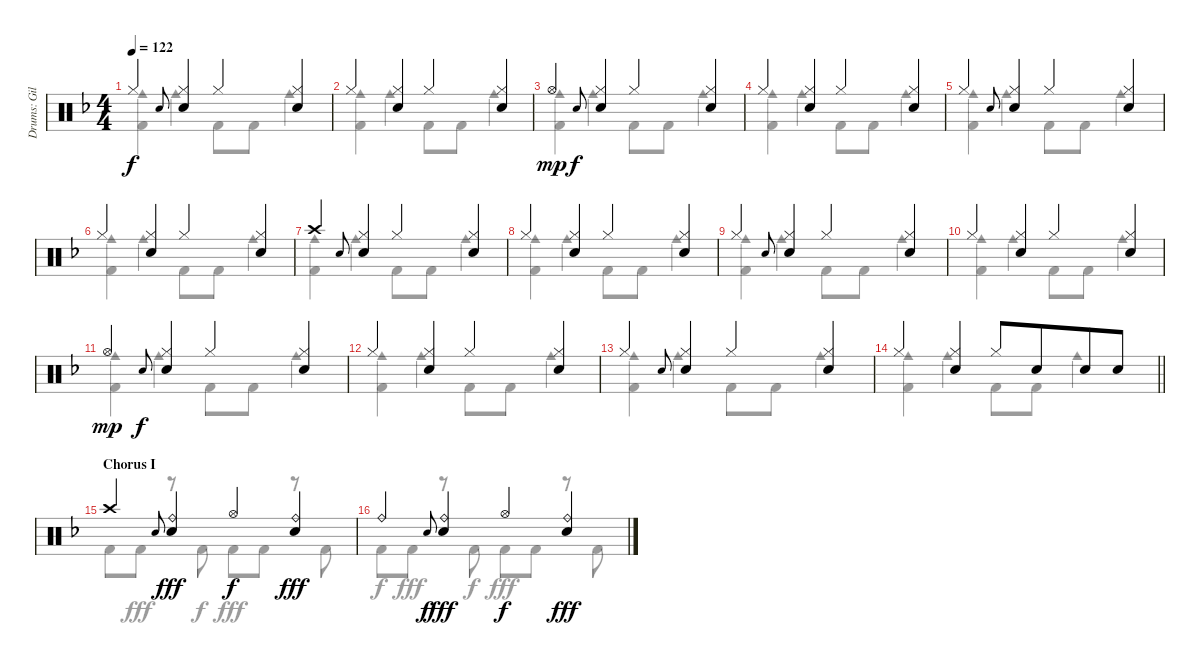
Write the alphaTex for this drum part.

\track ("Drums: Gil" "Drums: Gil") {instrument percussion}
\staff {score}
\articulation defaults
\voice
\ts (4 4)
\tempo 122
\clef neutral
\ks f "Hi-Hat (closed)".4{dy f} "Electric Snare (hit)".8{gr onbeat}
("Hi-Hat (closed)" "Snare (hit) 2").4 "Hi-Hat (closed)".4 ("Hi-Hat (closed)" "Snare (hit) 2").4 |
"Hi-Hat (closed)".4 ("Hi-Hat (closed)" "Snare (hit) 2").4 "Hi-Hat (closed)".4 ("Hi-Hat (closed)" "Snare (hit) 2").4 |
"Hi-Hat (open)".4{dy mp} "Electric Snare (hit)".8{gr onbeat dy f} ("Hi-Hat (closed)" "Snare (hit) 2").4 "Hi-Hat (closed)".4 ("Hi-Hat (closed)" "Snare (hit) 2").4 |
"Hi-Hat (closed)".4 ("Hi-Hat (closed)" "Snare (hit) 2").4 "Hi-Hat (closed)".4 ("Hi-Hat (closed)" "Snare (hit) 2").4 |
"Hi-Hat (closed)".4 "Electric Snare (hit)".8{gr onbeat} ("Hi-Hat (closed)" "Snare (hit) 2").4 "Hi-Hat (closed)".4 ("Hi-Hat (closed)" "Snare (hit) 2").4 |
"Hi-Hat (closed)".4 ("Hi-Hat (closed)" "Snare (hit) 2").4 "Hi-Hat (closed)".4 ("Hi-Hat (closed)" "Snare (hit) 2").4 |
"Crash high (hit)".4 "Electric Snare (hit)".8{gr onbeat} ("Hi-Hat (closed)" "Snare (hit) 2").4 "Hi-Hat (closed)".4 ("Hi-Hat (closed)" "Snare (hit) 2").4 |
"Hi-Hat (closed)".4 ("Hi-Hat (closed)" "Snare (hit) 2").4 "Hi-Hat (closed)".4 ("Hi-Hat (closed)" "Snare (hit) 2").4 |
"Hi-Hat (closed)".4 "Electric Snare (hit)".8{gr onbeat} ("Hi-Hat (closed)" "Snare (hit) 2").4 "Hi-Hat (closed)".4 ("Hi-Hat (closed)" "Snare (hit) 2").4 |
"Hi-Hat (closed)".4 ("Hi-Hat (closed)" "Snare (hit) 2").4 "Hi-Hat (closed)".4 ("Hi-Hat (closed)" "Snare (hit) 2").4 |
"Hi-Hat (open)".4{dy mp} "Electric Snare (hit)".8{gr onbeat dy f} ("Hi-Hat (closed)" "Snare (hit) 2").4 "Hi-Hat (closed)".4 ("Hi-Hat (closed)" "Snare (hit) 2").4 |
"Hi-Hat (closed)".4 ("Hi-Hat (closed)" "Snare (hit) 2").4 "Hi-Hat (closed)".4 ("Hi-Hat (closed)" "Snare (hit) 2").4 |
"Hi-Hat (closed)".4 "Electric Snare (hit)".8{gr onbeat} ("Hi-Hat (closed)" "Snare (hit) 2").4 "Hi-Hat (closed)".4 ("Hi-Hat (closed)" "Snare (hit) 2").4 |
\barLineRight lightlight "Hi-Hat (closed)".4
("Hi-Hat (closed)" "Snare (hit) 2").4 "Hi-Hat (closed)".8 "Snare (hit) 2".8{beam merge} "Snare (hit) 2".8 "Snare (hit) 2".8 |
\section ("" "Chorus I")
"Crash high (hit)".4 "Electric Snare (hit)".8{gr onbeat} ("Ride (bell)" "Snare (hit) 2").4{dy fff} "Hi-Hat (open)".4{dy f} ("Ride (bell)" "Snare (hit) 2").4{dy fff} |
"Ride (bell)".4 "Electric Snare (hit)".8{gr onbeat dy f} ("Ride (bell)" "Snare (hit) 2").4{dy fff} "Hi-Hat (open)".4{dy f} ("Ride (bell)" "Snare (hit) 2").4{dy fff}
\voice
\clef neutral
\ottava regular
\simile none
\ks f
("Kick (hit) 2" "Cowbell medium (hit)").4{dy f} "Cowbell medium (hit)".4 "Kick (hit) 2".8 "Kick (hit) 2".8 "Cowbell medium (hit)".4 |
("Kick (hit) 2" "Cowbell medium (hit)").4 "Cowbell medium (hit)".4 "Kick (hit) 2".8 "Kick (hit) 2".8 "Cowbell medium (hit)".4 |
("Kick (hit) 2" "Cowbell medium (hit)").4 "Cowbell medium (hit)".4 "Kick (hit) 2".8 "Kick (hit) 2".8 "Cowbell medium (hit)".4 |
("Kick (hit) 2" "Cowbell medium (hit)").4 "Cowbell medium (hit)".4 "Kick (hit) 2".8 "Kick (hit) 2".8 "Cowbell medium (hit)".4 |
("Kick (hit) 2" "Cowbell medium (hit)").4 "Cowbell medium (hit)".4 "Kick (hit) 2".8 "Kick (hit) 2".8 "Cowbell medium (hit)".4 |
("Kick (hit) 2" "Cowbell medium (hit)").4 "Cowbell medium (hit)".4 "Kick (hit) 2".8 "Kick (hit) 2".8 "Cowbell medium (hit)".4 |
("Kick (hit) 2" "Cowbell medium (hit)").4 "Cowbell medium (hit)".4 "Kick (hit) 2".8 "Kick (hit) 2".8 "Cowbell medium (hit)".4 |
("Kick (hit) 2" "Cowbell medium (hit)").4 "Cowbell medium (hit)".4 "Kick (hit) 2".8 "Kick (hit) 2".8 "Cowbell medium (hit)".4 |
("Kick (hit) 2" "Cowbell medium (hit)").4 "Cowbell medium (hit)".4 "Kick (hit) 2".8 "Kick (hit) 2".8 "Cowbell medium (hit)".4 |
("Kick (hit) 2" "Cowbell medium (hit)").4 "Cowbell medium (hit)".4 "Kick (hit) 2".8 "Kick (hit) 2".8 "Cowbell medium (hit)".4 |
("Kick (hit) 2" "Cowbell medium (hit)").4 "Cowbell medium (hit)".4 "Kick (hit) 2".8 "Kick (hit) 2".8 "Cowbell medium (hit)".4 |
("Kick (hit) 2" "Cowbell medium (hit)").4 "Cowbell medium (hit)".4 "Kick (hit) 2".8 "Kick (hit) 2".8 "Cowbell medium (hit)".4 |
("Kick (hit) 2" "Cowbell medium (hit)").4 "Cowbell medium (hit)".4 "Kick (hit) 2".8 "Kick (hit) 2".8 "Cowbell medium (hit)".4 |
\barLineRight lightlight
("Kick (hit) 2" "Cowbell medium (hit)").4 "Cowbell medium (hit)".4 "Kick (hit) 2".8 "Kick (hit) 2".8 "Cowbell medium (hit)".4 |
"Kick (hit) 2".8 "Kick (hit) 2".8{dy fff} r.8 "Kick (hit) 2".8{dy f} "Kick (hit) 2".8{dy fff} "Kick (hit) 2".8 r.8 "Kick (hit) 2".8 |
"Kick (hit) 2".8{dy f} "Kick (hit) 2".8{dy fff} r.8 "Kick (hit) 2".8{dy f} "Kick (hit) 2".8{dy fff} "Kick (hit) 2".8 r.8 "Kick (hit) 2".8
